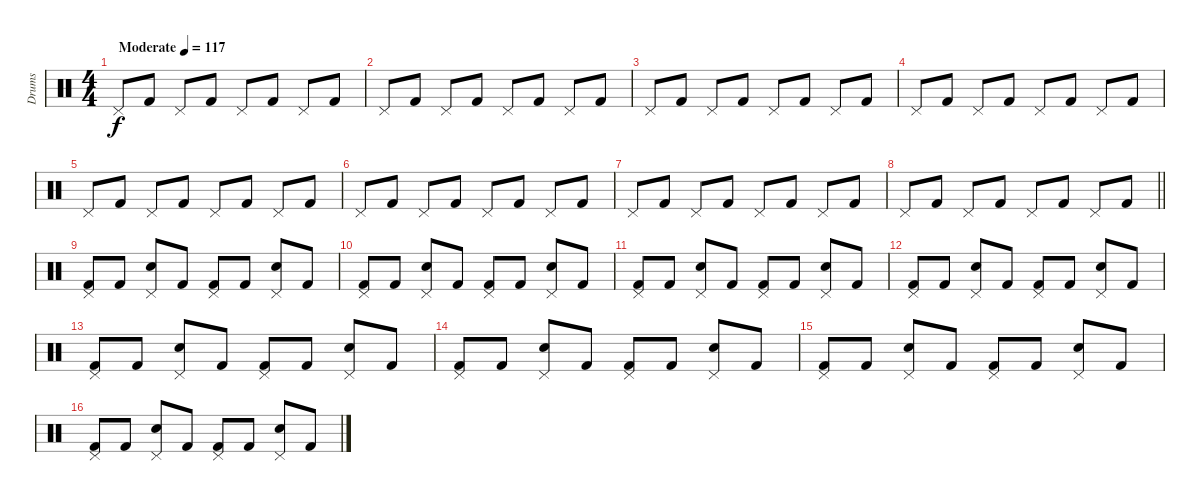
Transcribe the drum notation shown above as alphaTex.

\track ("Drums" "Drums") {instrument percussion}
\staff {score}
\articulation defaults
\ts (4 4)
\tempo (117 "Moderate")
\clef neutral
\ks c "Pedal Hi-Hat (hit)".8{dy f} "Kick (hit) 2".8 "Pedal Hi-Hat (hit)".8 "Kick (hit) 2".8 "Pedal Hi-Hat (hit)".8 "Kick (hit) 2".8 "Pedal Hi-Hat (hit)".8 "Kick (hit) 2".8
|
"Pedal Hi-Hat (hit)".8 "Kick (hit) 2".8 "Pedal Hi-Hat (hit)".8 "Kick (hit) 2".8 "Pedal Hi-Hat (hit)".8 "Kick (hit) 2".8 "Pedal Hi-Hat (hit)".8 "Kick (hit) 2".8 |
"Pedal Hi-Hat (hit)".8 "Kick (hit) 2".8 "Pedal Hi-Hat (hit)".8 "Kick (hit) 2".8 "Pedal Hi-Hat (hit)".8 "Kick (hit) 2".8 "Pedal Hi-Hat (hit)".8 "Kick (hit) 2".8 |
"Pedal Hi-Hat (hit)".8 "Kick (hit) 2".8 "Pedal Hi-Hat (hit)".8 "Kick (hit) 2".8 "Pedal Hi-Hat (hit)".8 "Kick (hit) 2".8 "Pedal Hi-Hat (hit)".8 "Kick (hit) 2".8 |
"Pedal Hi-Hat (hit)".8 "Kick (hit) 2".8 "Pedal Hi-Hat (hit)".8 "Kick (hit) 2".8 "Pedal Hi-Hat (hit)".8 "Kick (hit) 2".8 "Pedal Hi-Hat (hit)".8 "Kick (hit) 2".8 |
"Pedal Hi-Hat (hit)".8 "Kick (hit) 2".8 "Pedal Hi-Hat (hit)".8 "Kick (hit) 2".8 "Pedal Hi-Hat (hit)".8 "Kick (hit) 2".8 "Pedal Hi-Hat (hit)".8 "Kick (hit) 2".8 |
"Pedal Hi-Hat (hit)".8 "Kick (hit) 2".8 "Pedal Hi-Hat (hit)".8 "Kick (hit) 2".8 "Pedal Hi-Hat (hit)".8 "Kick (hit) 2".8 "Pedal Hi-Hat (hit)".8 "Kick (hit) 2".8 |
\barLineRight lightlight "Pedal Hi-Hat (hit)".8 "Kick (hit) 2".8 "Pedal Hi-Hat (hit)".8 "Kick (hit) 2".8 "Pedal Hi-Hat (hit)".8 "Kick (hit) 2".8 "Pedal Hi-Hat (hit)".8 "Kick (hit) 2".8
|
("Kick (hit) 2" "Pedal Hi-Hat (hit)").8 "Kick (hit) 2".8 ("Snare (hit) 2" "Pedal Hi-Hat (hit)").8 "Kick (hit) 2".8 ("Kick (hit) 2" "Pedal Hi-Hat (hit)").8 "Kick (hit) 2".8 ("Snare (hit) 2" "Pedal Hi-Hat (hit)").8 "Kick (hit) 2".8 |
("Kick (hit) 2" "Pedal Hi-Hat (hit)").8 "Kick (hit) 2".8 ("Snare (hit) 2" "Pedal Hi-Hat (hit)").8 "Kick (hit) 2".8 ("Kick (hit) 2" "Pedal Hi-Hat (hit)").8 "Kick (hit) 2".8 ("Snare (hit) 2" "Pedal Hi-Hat (hit)").8 "Kick (hit) 2".8 |
("Kick (hit) 2" "Pedal Hi-Hat (hit)").8 "Kick (hit) 2".8 ("Snare (hit) 2" "Pedal Hi-Hat (hit)").8 "Kick (hit) 2".8 ("Kick (hit) 2" "Pedal Hi-Hat (hit)").8 "Kick (hit) 2".8 ("Snare (hit) 2" "Pedal Hi-Hat (hit)").8 "Kick (hit) 2".8 |
("Kick (hit) 2" "Pedal Hi-Hat (hit)").8 "Kick (hit) 2".8 ("Snare (hit) 2" "Pedal Hi-Hat (hit)").8 "Kick (hit) 2".8 ("Kick (hit) 2" "Pedal Hi-Hat (hit)").8 "Kick (hit) 2".8 ("Snare (hit) 2" "Pedal Hi-Hat (hit)").8 "Kick (hit) 2".8 |
("Kick (hit) 2" "Pedal Hi-Hat (hit)").8 "Kick (hit) 2".8 ("Snare (hit) 2" "Pedal Hi-Hat (hit)").8 "Kick (hit) 2".8 ("Kick (hit) 2" "Pedal Hi-Hat (hit)").8 "Kick (hit) 2".8 ("Snare (hit) 2" "Pedal Hi-Hat (hit)").8 "Kick (hit) 2".8 |
("Kick (hit) 2" "Pedal Hi-Hat (hit)").8 "Kick (hit) 2".8 ("Snare (hit) 2" "Pedal Hi-Hat (hit)").8 "Kick (hit) 2".8 ("Kick (hit) 2" "Pedal Hi-Hat (hit)").8 "Kick (hit) 2".8 ("Snare (hit) 2" "Pedal Hi-Hat (hit)").8 "Kick (hit) 2".8 |
("Kick (hit) 2" "Pedal Hi-Hat (hit)").8 "Kick (hit) 2".8 ("Snare (hit) 2" "Pedal Hi-Hat (hit)").8 "Kick (hit) 2".8 ("Kick (hit) 2" "Pedal Hi-Hat (hit)").8 "Kick (hit) 2".8 ("Snare (hit) 2" "Pedal Hi-Hat (hit)").8 "Kick (hit) 2".8 |
("Kick (hit) 2" "Pedal Hi-Hat (hit)").8 "Kick (hit) 2".8 ("Snare (hit) 2" "Pedal Hi-Hat (hit)").8 "Kick (hit) 2".8 ("Kick (hit) 2" "Pedal Hi-Hat (hit)").8 "Kick (hit) 2".8 ("Snare (hit) 2" "Pedal Hi-Hat (hit)").8 "Kick (hit) 2".8
